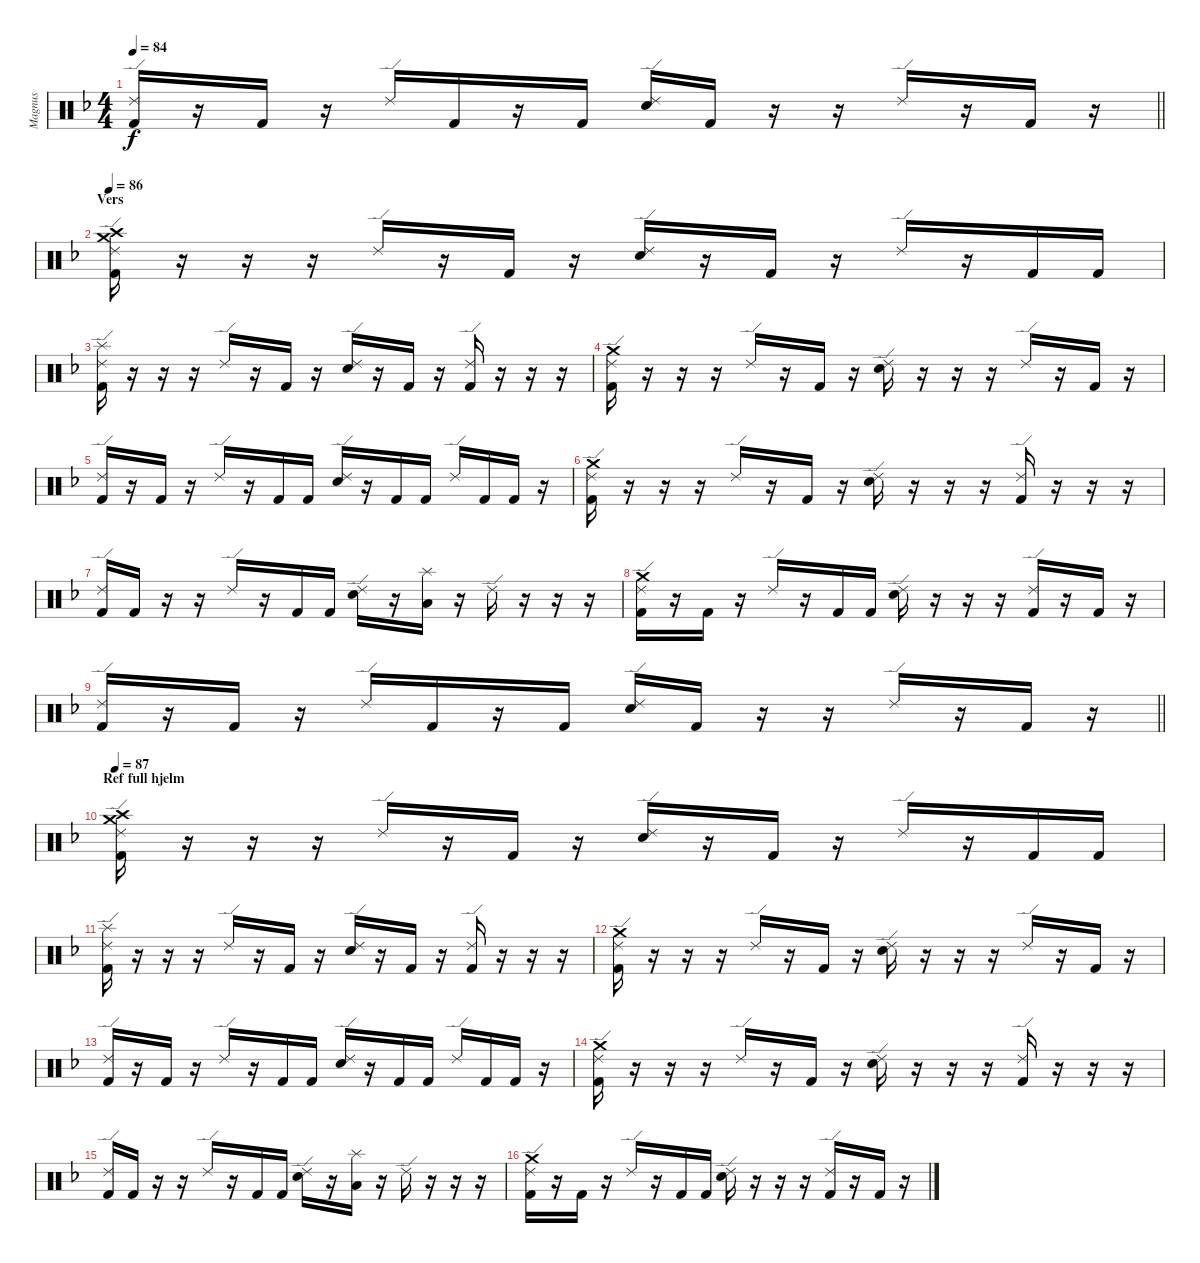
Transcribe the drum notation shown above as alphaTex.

\track ("Magnus" "Magnus") {instrument percussion}
\staff {score}
\articulation defaults
\ts (4 4)
\tempo 84
\clef neutral
\barLineRight lightlight
\ks dminor
("Ride (edge) 2" "Kick (hit) 2").16{dy f} r.16 "Kick (hit) 2".16 r.16 "Ride (edge) 2".16 "Kick (hit) 2".16 r.16 "Kick (hit) 2".16 ("Ride (edge) 2" "Snare (hit) 2").16 "Kick (hit) 2".16 r.16 r.16 "Ride (edge) 2".16 r.16 "Kick (hit) 2".16 r.16 |
\section ("" "Vers")
\tempo 86
("Crash medium (hit)" "Crash high (hit)" "Ride (edge) 2" "Kick (hit) 2").16 r.16 r.16 r.16 "Ride (edge) 2".16 r.16 "Kick (hit) 2".16 r.16 ("Ride (edge) 2" "Snare (hit) 2").16 r.16 "Kick (hit) 2".16 r.16 "Ride (edge) 2".16 r.16 "Kick (hit) 2".16 "Kick (hit) 2".16 |
("Splash (hit)" "Ride (edge) 2" "Kick (hit) 2").16 r.16 r.16 r.16 "Ride (edge) 2".16 r.16 "Kick (hit) 2".16 r.16 ("Ride (edge) 2" "Snare (hit) 2").16 r.16 "Kick (hit) 2".16 r.16 ("Ride (edge) 2" "Kick (hit) 2").16 r.16 r.16 r.16 |
("Crash medium (hit)" "Ride (edge) 2" "Kick (hit) 2").16 r.16 r.16 r.16 "Ride (edge) 2".16 r.16 "Kick (hit) 2".16 r.16 ("Ride (edge) 2" "Snare (hit) 2").16 r.16 r.16 r.16 "Ride (edge) 2".16 r.16 "Kick (hit) 2".16 r.16 |
("Ride (edge) 2" "Kick (hit) 2").16 r.16 "Kick (hit) 2".16 r.16 "Ride (edge) 2".16 r.16 "Kick (hit) 2".16 "Kick (hit) 2".16 ("Ride (edge) 2" "Snare (hit) 2").16 r.16 "Kick (hit) 2".16 "Kick (hit) 2".16 "Ride (edge) 2".16 "Kick (hit) 2".16 "Kick (hit) 2".16 r.16 |
("Crash medium (hit)" "Ride (edge) 2" "Kick (hit) 2").16 r.16 r.16 r.16 "Ride (edge) 2".16 r.16 "Kick (hit) 2".16 r.16 ("Ride (edge) 2" "Snare (hit) 2").16 r.16 r.16 r.16 ("Ride (edge) 2" "Kick (hit) 2").16 r.16 r.16 r.16 |
("Ride (edge) 2" "Kick (hit) 2").16 "Kick (hit) 2".16 r.16 r.16 "Ride (edge) 2".16 r.16 "Kick (hit) 2".16 "Kick (hit) 2".16 ("Ride (edge) 2" "Snare (hit) 2").16 r.16 ("Splash (hit)" "Low Tom (hit)").16 r.16 "Ride (edge) 2".16 r.16 r.16 r.16 |
("Crash medium (hit)" "Ride (edge) 2" "Kick (hit) 2").16 r.16 "Kick (hit) 2".16 r.16 "Ride (edge) 2".16 r.16 "Kick (hit) 2".16 "Kick (hit) 2".16 ("Ride (edge) 2" "Snare (hit) 2").16 r.16 r.16 r.16 ("Ride (edge) 2" "Kick (hit) 2").16 r.16 "Kick (hit) 2".16 r.16 |
\barLineRight lightlight
("Ride (edge) 2" "Kick (hit) 2").16 r.16 "Kick (hit) 2".16 r.16 "Ride (edge) 2".16 "Kick (hit) 2".16 r.16 "Kick (hit) 2".16 ("Ride (edge) 2" "Snare (hit) 2").16 "Kick (hit) 2".16 r.16 r.16 "Ride (edge) 2".16 r.16 "Kick (hit) 2".16 r.16 |
\section ("" "Ref full hjelm")
\tempo 87
("Crash medium (hit)" "Crash high (hit)" "Ride (edge) 2" "Kick (hit) 2").16 r.16 r.16 r.16 "Ride (edge) 2".16 r.16 "Kick (hit) 2".16 r.16 ("Ride (edge) 2" "Snare (hit) 2").16 r.16 "Kick (hit) 2".16 r.16 "Ride (edge) 2".16 r.16 "Kick (hit) 2".16 "Kick (hit) 2".16 |
("Splash (hit)" "Ride (edge) 2" "Kick (hit) 2").16 r.16 r.16 r.16 "Ride (edge) 2".16 r.16 "Kick (hit) 2".16 r.16 ("Ride (edge) 2" "Snare (hit) 2").16 r.16 "Kick (hit) 2".16 r.16 ("Ride (edge) 2" "Kick (hit) 2").16 r.16 r.16 r.16 |
("Crash medium (hit)" "Ride (edge) 2" "Kick (hit) 2").16 r.16 r.16 r.16 "Ride (edge) 2".16 r.16 "Kick (hit) 2".16 r.16 ("Ride (edge) 2" "Snare (hit) 2").16 r.16 r.16 r.16 "Ride (edge) 2".16 r.16 "Kick (hit) 2".16 r.16 |
("Ride (edge) 2" "Kick (hit) 2").16 r.16 "Kick (hit) 2".16 r.16 "Ride (edge) 2".16 r.16 "Kick (hit) 2".16 "Kick (hit) 2".16 ("Ride (edge) 2" "Snare (hit) 2").16 r.16 "Kick (hit) 2".16 "Kick (hit) 2".16 "Ride (edge) 2".16 "Kick (hit) 2".16 "Kick (hit) 2".16 r.16 |
("Crash medium (hit)" "Ride (edge) 2" "Kick (hit) 2").16 r.16 r.16 r.16 "Ride (edge) 2".16 r.16 "Kick (hit) 2".16 r.16 ("Ride (edge) 2" "Snare (hit) 2").16 r.16 r.16 r.16 ("Ride (edge) 2" "Kick (hit) 2").16 r.16 r.16 r.16 |
("Ride (edge) 2" "Kick (hit) 2").16 "Kick (hit) 2".16 r.16 r.16 "Ride (edge) 2".16 r.16 "Kick (hit) 2".16 "Kick (hit) 2".16 ("Ride (edge) 2" "Snare (hit) 2").16 r.16 ("Splash (hit)" "Low Tom (hit)").16 r.16 "Ride (edge) 2".16 r.16 r.16 r.16 |
("Crash medium (hit)" "Ride (edge) 2" "Kick (hit) 2").16 r.16 "Kick (hit) 2".16 r.16 "Ride (edge) 2".16 r.16 "Kick (hit) 2".16 "Kick (hit) 2".16 ("Ride (edge) 2" "Snare (hit) 2").16 r.16 r.16 r.16 ("Ride (edge) 2" "Kick (hit) 2").16 r.16 "Kick (hit) 2".16 r.16
